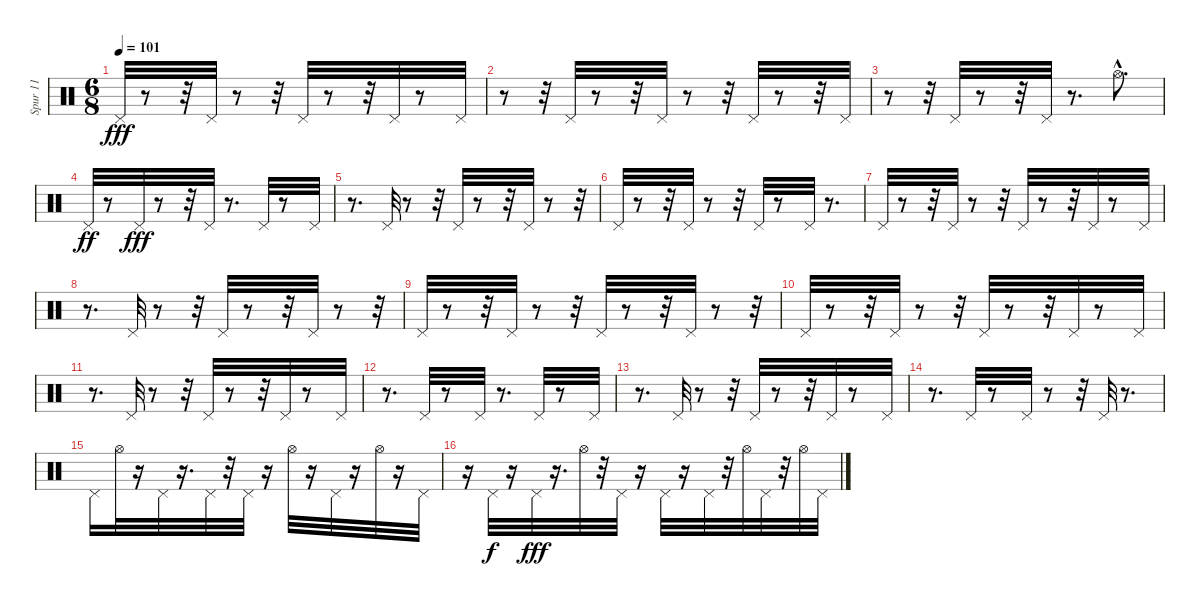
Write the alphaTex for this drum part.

\track ("Spur 11" "Spur 11") {instrument percussion}
\staff {score}
\articulation defaults
\ts (6 8)
\tempo 101
\clef neutral
\ks c "Pedal Hi-Hat (hit)".32{dy fff}
r.8 r.32 "Pedal Hi-Hat (hit)".32 r.8 r.32 "Pedal Hi-Hat (hit)".32 r.8 r.32 "Pedal Hi-Hat (hit)".32 r.8 "Pedal Hi-Hat (hit)".32 |
r.8 r.32 "Pedal Hi-Hat (hit)".32 r.8 r.32 "Pedal Hi-Hat (hit)".32 r.8 r.32 "Pedal Hi-Hat (hit)".32 r.8 r.32 "Pedal Hi-Hat (hit)".32 |
r.8 r.32 "Pedal Hi-Hat (hit)".32 r.8 r.32 "Pedal Hi-Hat (hit)".32 r.8{d} "Hi-Hat (open)"{hac}.8{d} |
"Pedal Hi-Hat (hit)".32{dy ff} r.8 "Pedal Hi-Hat (hit)".32{dy fff} r.8 r.32 "Pedal Hi-Hat (hit)".32 r.8{d} "Pedal Hi-Hat (hit)".32 r.8 "Pedal Hi-Hat (hit)".32 |
r.8{d} "Pedal Hi-Hat (hit)".32 r.8 r.32 "Pedal Hi-Hat (hit)".32 r.8 r.32 "Pedal Hi-Hat (hit)".32 r.8 r.32 |
"Pedal Hi-Hat (hit)".32 r.8 r.32 "Pedal Hi-Hat (hit)".32 r.8 r.32 "Pedal Hi-Hat (hit)".32 r.8 "Pedal Hi-Hat (hit)".32 r.8{d} |
"Pedal Hi-Hat (hit)".32 r.8 r.32 "Pedal Hi-Hat (hit)".32 r.8 r.32 "Pedal Hi-Hat (hit)".32 r.8 r.32 "Pedal Hi-Hat (hit)".32 r.8 "Pedal Hi-Hat (hit)".32 |
r.8{d} "Pedal Hi-Hat (hit)".32 r.8 r.32 "Pedal Hi-Hat (hit)".32 r.8 r.32 "Pedal Hi-Hat (hit)".32 r.8 r.32 |
"Pedal Hi-Hat (hit)".32 r.8 r.32 "Pedal Hi-Hat (hit)".32 r.8 r.32 "Pedal Hi-Hat (hit)".32 r.8 r.32 "Pedal Hi-Hat (hit)".32 r.8 r.32 |
"Pedal Hi-Hat (hit)".32 r.8 r.32 "Pedal Hi-Hat (hit)".32 r.8 r.32 "Pedal Hi-Hat (hit)".32 r.8 r.32 "Pedal Hi-Hat (hit)".32 r.8 "Pedal Hi-Hat (hit)".32 |
r.8{d} "Pedal Hi-Hat (hit)".32 r.8 r.32 "Pedal Hi-Hat (hit)".32 r.8 r.32 "Pedal Hi-Hat (hit)".32 r.8 "Pedal Hi-Hat (hit)".32 |
r.8{d} "Pedal Hi-Hat (hit)".32 r.8 "Pedal Hi-Hat (hit)".32 r.8{d} "Pedal Hi-Hat (hit)".32 r.8 "Pedal Hi-Hat (hit)".32 |
r.8{d} "Pedal Hi-Hat (hit)".32 r.8 r.32 "Pedal Hi-Hat (hit)".32 r.8 r.32 "Pedal Hi-Hat (hit)".32 r.8 "Pedal Hi-Hat (hit)".32 |
r.8{d} "Pedal Hi-Hat (hit)".32 r.8 "Pedal Hi-Hat (hit)".32 r.8 r.32 "Pedal Hi-Hat (hit)".32 r.8{d} |
"Pedal Hi-Hat (hit)".16 "Hi-Hat (open)".32 r.16 "Pedal Hi-Hat (hit)".32 r.16{d} "Pedal Hi-Hat (hit)".32 r.32 "Pedal Hi-Hat (hit)".32 r.16 "Hi-Hat (open)".32 r.16 "Pedal Hi-Hat (hit)".32 r.16 "Hi-Hat (open)".32 r.16 "Pedal Hi-Hat (hit)".32 |
r.16 "Pedal Hi-Hat (hit)".32{dy f} r.16 "Pedal Hi-Hat (hit)".32{dy fff} r.16{d} "Hi-Hat (open)".32 r.32 "Pedal Hi-Hat (hit)".32 r.16 "Pedal Hi-Hat (hit)".32 r.16 "Pedal Hi-Hat (hit)".32 r.32 "Hi-Hat (open)".32 "Pedal Hi-Hat (hit)".32 r.32 "Hi-Hat (open)".32 "Pedal Hi-Hat (hit)".32
